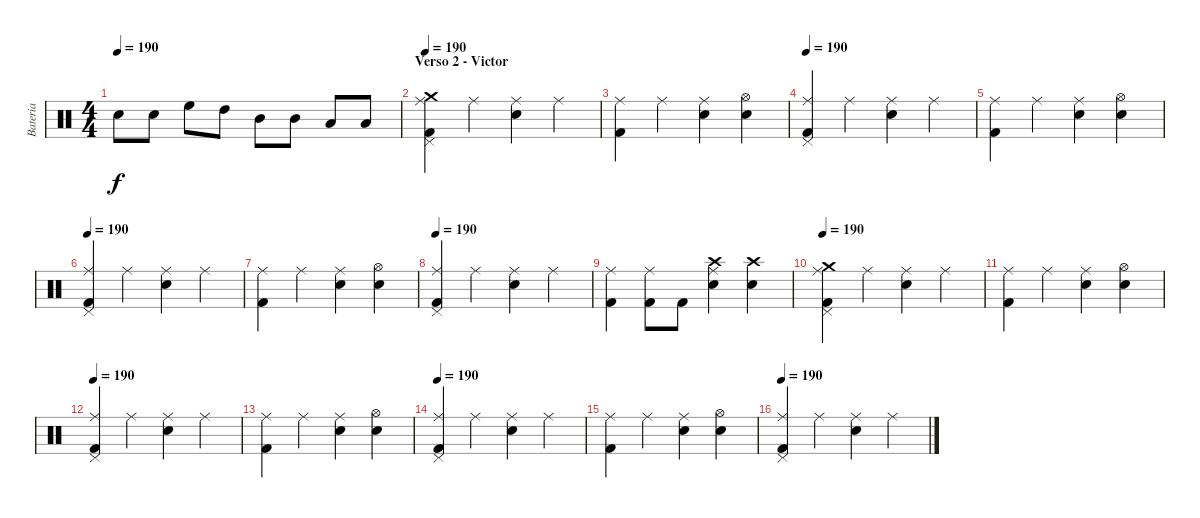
\track ("Bateria" "Bateria") {instrument percussion}
\staff {score}
\articulation defaults
\ts (4 4)
\tempo 190
\clef neutral
\ks c "Snare (hit) 2".8{dy f} "Snare (hit) 2".8 "High Floor Tom (hit)".8 "High Tom (hit)".8 "Mid Tom (hit)".8 "Mid Tom (hit)".8 "Low Tom (hit)".8 "Low Tom (hit)".8
|
\section ("" "Verso 2 - Victor")
\tempo 190
("Crash medium (hit)" "Pedal Hi-Hat (hit)" "Kick (hit) 2" "Ride (middle)").4 "Ride (middle)".4 ("Snare (hit) 2" "Ride (middle)").4 "Ride (middle)".4 |
("Kick (hit) 2" "Ride (middle)").4 "Ride (middle)".4 ("Snare (hit) 2" "Ride (middle)").4 ("Hi-Hat (open)" "Snare (hit) 2").4 |
\tempo 190
("Pedal Hi-Hat (hit)" "Kick (hit) 2" "Ride (middle)").4 "Ride (middle)".4 ("Snare (hit) 2" "Ride (middle)").4 "Ride (middle)".4 |
("Kick (hit) 2" "Ride (middle)").4 "Ride (middle)".4 ("Snare (hit) 2" "Ride (middle)").4 ("Hi-Hat (open)" "Snare (hit) 2").4 |
\tempo 190
("Pedal Hi-Hat (hit)" "Kick (hit) 2" "Ride (middle)").4 "Ride (middle)".4 ("Snare (hit) 2" "Ride (middle)").4 "Ride (middle)".4 |
("Kick (hit) 2" "Ride (middle)").4 "Ride (middle)".4 ("Snare (hit) 2" "Ride (middle)").4 ("Hi-Hat (open)" "Snare (hit) 2").4 |
\tempo 190
("Pedal Hi-Hat (hit)" "Kick (hit) 2" "Ride (middle)").4 "Ride (middle)".4 ("Snare (hit) 2" "Ride (middle)").4 "Ride (middle)".4 |
("Kick (hit) 2" "Ride (middle)").4 ("Kick (hit) 2" "Ride (middle)").8 "Kick (hit) 2".8 ("Crash high (hit)" "Snare (hit) 2" "Ride (middle)").4 ("Crash high (hit)" "Snare (hit) 2").4 |
\tempo 190
("Crash medium (hit)" "Pedal Hi-Hat (hit)" "Kick (hit) 2" "Ride (middle)").4 "Ride (middle)".4 ("Snare (hit) 2" "Ride (middle)").4 "Ride (middle)".4 |
("Kick (hit) 2" "Ride (middle)").4 "Ride (middle)".4 ("Snare (hit) 2" "Ride (middle)").4 ("Hi-Hat (open)" "Snare (hit) 2").4 |
\tempo 190
("Pedal Hi-Hat (hit)" "Kick (hit) 2" "Ride (middle)").4 "Ride (middle)".4 ("Snare (hit) 2" "Ride (middle)").4 "Ride (middle)".4 |
("Kick (hit) 2" "Ride (middle)").4 "Ride (middle)".4 ("Snare (hit) 2" "Ride (middle)").4 ("Hi-Hat (open)" "Snare (hit) 2").4 |
\tempo 190
("Pedal Hi-Hat (hit)" "Kick (hit) 2" "Ride (middle)").4 "Ride (middle)".4 ("Snare (hit) 2" "Ride (middle)").4 "Ride (middle)".4 |
("Kick (hit) 2" "Ride (middle)").4 "Ride (middle)".4 ("Snare (hit) 2" "Ride (middle)").4 ("Hi-Hat (open)" "Snare (hit) 2").4 |
\tempo 190
("Pedal Hi-Hat (hit)" "Kick (hit) 2" "Ride (middle)").4 "Ride (middle)".4 ("Snare (hit) 2" "Ride (middle)").4 "Ride (middle)".4
